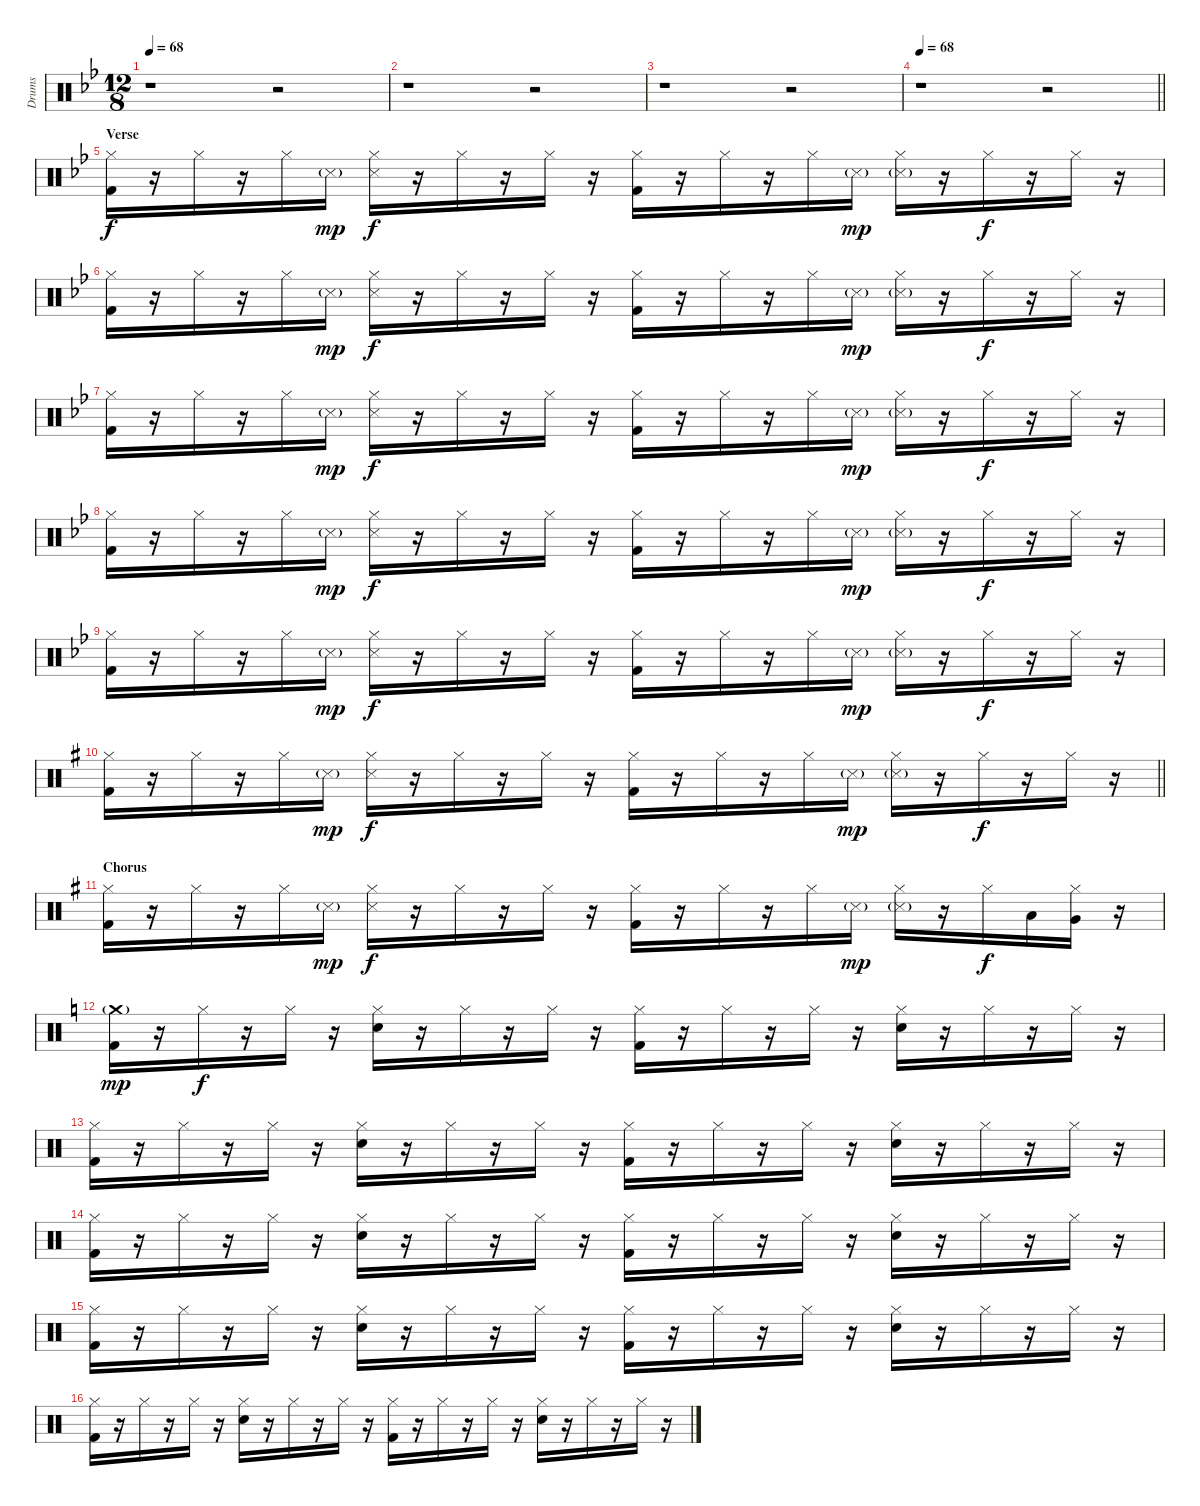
\track ("Drums" "Drums") {instrument percussion}
\staff {score}
\articulation defaults
\ts (12 8)
\tempo 68
\tempo 120
\tempo 68
\clef neutral
\ks gminor
r.1{dy f} r.2 |
r.1 r.2 |
r.1 r.2 |
\tempo 68
\barLineRight lightlight
r.1 r.2 |
\section ("" "Verse")
("Hi-Hat (closed)" "Kick (hit) 2").16{balance 10} r.16 "Hi-Hat (closed)".16 r.16 "Hi-Hat (closed)".16 "Snare (side stick) 3"{g}.16{dy mp} ("Hi-Hat (closed)" "Snare (side stick) 3").16{dy f} r.16 "Hi-Hat (closed)".16 r.16 "Hi-Hat (closed)".16 r.16 ("Hi-Hat (closed)" "Kick (hit) 2").16 r.16 "Hi-Hat (closed)".16 r.16 "Hi-Hat (closed)".16 "Snare (side stick) 3"{g}.16{dy mp} ("Hi-Hat (closed)" "Snare (side stick) 3"{g}).16 r.16 "Hi-Hat (closed)".16{dy f} r.16 "Hi-Hat (closed)".16 r.16 |
("Hi-Hat (closed)" "Kick (hit) 2").16 r.16 "Hi-Hat (closed)".16 r.16 "Hi-Hat (closed)".16 "Snare (side stick) 3"{g}.16{dy mp} ("Hi-Hat (closed)" "Snare (side stick) 3").16{dy f} r.16 "Hi-Hat (closed)".16 r.16 "Hi-Hat (closed)".16 r.16 ("Hi-Hat (closed)" "Kick (hit) 2").16 r.16 "Hi-Hat (closed)".16 r.16 "Hi-Hat (closed)".16 "Snare (side stick) 3"{g}.16{dy mp} ("Hi-Hat (closed)" "Snare (side stick) 3"{g}).16 r.16 "Hi-Hat (closed)".16{dy f} r.16 "Hi-Hat (closed)".16 r.16 |
("Hi-Hat (closed)" "Kick (hit) 2").16 r.16 "Hi-Hat (closed)".16 r.16 "Hi-Hat (closed)".16 "Snare (side stick) 3"{g}.16{dy mp} ("Hi-Hat (closed)" "Snare (side stick) 3").16{dy f} r.16 "Hi-Hat (closed)".16 r.16 "Hi-Hat (closed)".16 r.16 ("Hi-Hat (closed)" "Kick (hit) 2").16 r.16 "Hi-Hat (closed)".16 r.16 "Hi-Hat (closed)".16 "Snare (side stick) 3"{g}.16{dy mp} ("Hi-Hat (closed)" "Snare (side stick) 3"{g}).16 r.16 "Hi-Hat (closed)".16{dy f} r.16 "Hi-Hat (closed)".16 r.16 |
("Hi-Hat (closed)" "Kick (hit) 2").16 r.16 "Hi-Hat (closed)".16 r.16 "Hi-Hat (closed)".16 "Snare (side stick) 3"{g}.16{dy mp} ("Hi-Hat (closed)" "Snare (side stick) 3").16{dy f} r.16 "Hi-Hat (closed)".16 r.16 "Hi-Hat (closed)".16 r.16 ("Hi-Hat (closed)" "Kick (hit) 2").16 r.16 "Hi-Hat (closed)".16 r.16 "Hi-Hat (closed)".16 "Snare (side stick) 3"{g}.16{dy mp} ("Hi-Hat (closed)" "Snare (side stick) 3"{g}).16 r.16 "Hi-Hat (closed)".16{dy f} r.16 "Hi-Hat (closed)".16 r.16 |
("Hi-Hat (closed)" "Kick (hit) 2").16 r.16 "Hi-Hat (closed)".16 r.16 "Hi-Hat (closed)".16 "Snare (side stick) 3"{g}.16{dy mp} ("Hi-Hat (closed)" "Snare (side stick) 3").16{dy f} r.16 "Hi-Hat (closed)".16 r.16 "Hi-Hat (closed)".16 r.16 ("Hi-Hat (closed)" "Kick (hit) 2").16 r.16 "Hi-Hat (closed)".16 r.16 "Hi-Hat (closed)".16 "Snare (side stick) 3"{g}.16{dy mp} ("Hi-Hat (closed)" "Snare (side stick) 3"{g}).16 r.16 "Hi-Hat (closed)".16{dy f} r.16 "Hi-Hat (closed)".16 r.16 |
\barLineRight lightlight
\ks g
("Hi-Hat (closed)" "Kick (hit) 2").16 r.16 "Hi-Hat (closed)".16 r.16 "Hi-Hat (closed)".16 "Snare (side stick) 3"{g}.16{dy mp} ("Hi-Hat (closed)" "Snare (side stick) 3").16{dy f} r.16 "Hi-Hat (closed)".16 r.16 "Hi-Hat (closed)".16 r.16 ("Hi-Hat (closed)" "Kick (hit) 2").16 r.16 "Hi-Hat (closed)".16 r.16 "Hi-Hat (closed)".16 "Snare (side stick) 3"{g}.16{dy mp} ("Hi-Hat (closed)" "Snare (side stick) 3"{g}).16 r.16 "Hi-Hat (closed)".16{dy f} r.16 "Hi-Hat (closed)".16 r.16 |
\section ("" "Chorus")
("Hi-Hat (closed)" "Kick (hit) 2").16 r.16 "Hi-Hat (closed)".16 r.16 "Hi-Hat (closed)".16 "Snare (side stick) 3"{g}.16{dy mp} ("Hi-Hat (closed)" "Snare (side stick) 3").16{dy f} r.16 "Hi-Hat (closed)".16 r.16 "Hi-Hat (closed)".16 r.16 ("Hi-Hat (closed)" "Kick (hit) 2").16 r.16 "Hi-Hat (closed)".16 r.16 "Hi-Hat (closed)".16 "Snare (side stick) 3"{g}.16{dy mp} ("Hi-Hat (closed)" "Snare (side stick) 3"{g}).16 r.16 "Hi-Hat (closed)".16{dy f} "Low Tom (hit)".16 ("Hi-Hat (closed)" "Very Low Tom (hit)").16 r.16 |
\ks c
("Crash medium (hit)"{g} "Kick (hit) 2").16{dy mp} r.16 "Hi-Hat (closed)".16{dy f} r.16 "Hi-Hat (closed)".16 r.16 ("Hi-Hat (closed)" "Snare (hit) 2").16 r.16 "Hi-Hat (closed)".16 r.16 "Hi-Hat (closed)".16 r.16 ("Hi-Hat (closed)" "Kick (hit) 2").16 r.16 "Hi-Hat (closed)".16 r.16 "Hi-Hat (closed)".16 r.16 ("Hi-Hat (closed)" "Snare (hit) 2").16 r.16 "Hi-Hat (closed)".16 r.16 "Hi-Hat (closed)".16 r.16 |
("Hi-Hat (closed)" "Kick (hit) 2").16 r.16 "Hi-Hat (closed)".16 r.16 "Hi-Hat (closed)".16 r.16 ("Hi-Hat (closed)" "Snare (hit) 2").16 r.16 "Hi-Hat (closed)".16 r.16 "Hi-Hat (closed)".16 r.16 ("Hi-Hat (closed)" "Kick (hit) 2").16 r.16 "Hi-Hat (closed)".16 r.16 "Hi-Hat (closed)".16 r.16 ("Hi-Hat (closed)" "Snare (hit) 2").16 r.16 "Hi-Hat (closed)".16 r.16 "Hi-Hat (closed)".16 r.16 |
("Hi-Hat (closed)" "Kick (hit) 2").16 r.16 "Hi-Hat (closed)".16 r.16 "Hi-Hat (closed)".16 r.16 ("Hi-Hat (closed)" "Snare (hit) 2").16 r.16 "Hi-Hat (closed)".16 r.16 "Hi-Hat (closed)".16 r.16 ("Hi-Hat (closed)" "Kick (hit) 2").16 r.16 "Hi-Hat (closed)".16 r.16 "Hi-Hat (closed)".16 r.16 ("Hi-Hat (closed)" "Snare (hit) 2").16 r.16 "Hi-Hat (closed)".16 r.16 "Hi-Hat (closed)".16 r.16 |
("Hi-Hat (closed)" "Kick (hit) 2").16 r.16 "Hi-Hat (closed)".16 r.16 "Hi-Hat (closed)".16 r.16 ("Hi-Hat (closed)" "Snare (hit) 2").16 r.16 "Hi-Hat (closed)".16 r.16 "Hi-Hat (closed)".16 r.16 ("Hi-Hat (closed)" "Kick (hit) 2").16 r.16 "Hi-Hat (closed)".16 r.16 "Hi-Hat (closed)".16 r.16 ("Hi-Hat (closed)" "Snare (hit) 2").16 r.16 "Hi-Hat (closed)".16 r.16 "Hi-Hat (closed)".16 r.16 |
("Hi-Hat (closed)" "Kick (hit) 2").16 r.16 "Hi-Hat (closed)".16 r.16 "Hi-Hat (closed)".16 r.16 ("Hi-Hat (closed)" "Snare (hit) 2").16 r.16 "Hi-Hat (closed)".16 r.16 "Hi-Hat (closed)".16 r.16 ("Hi-Hat (closed)" "Kick (hit) 2").16 r.16 "Hi-Hat (closed)".16 r.16 "Hi-Hat (closed)".16 r.16 ("Hi-Hat (closed)" "Snare (hit) 2").16 r.16 "Hi-Hat (closed)".16 r.16 "Hi-Hat (closed)".16 r.16
